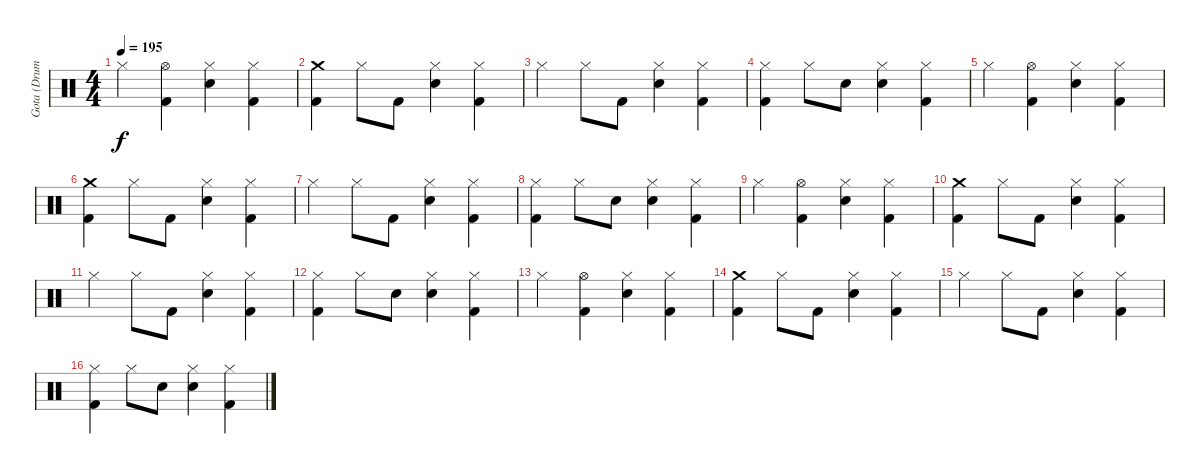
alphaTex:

\track ("Gota (Drums)" "Gota (Drum") {instrument percussion}
\staff {score}
\articulation defaults
\ts (4 4)
\tempo 195
\clef neutral
\ks c "Hi-Hat (closed)".4{dy f}
("Hi-Hat (open)" "Kick (hit) 2").4 ("Hi-Hat (closed)" "Electric Snare (hit)").4 ("Hi-Hat (closed)" "Kick (hit) 2").4 |
("Crash medium (hit)" "Kick (hit) 2").4 "Hi-Hat (closed)".8 "Kick (hit) 2".8 ("Hi-Hat (closed)" "Electric Snare (hit)").4 ("Hi-Hat (closed)" "Kick (hit) 2").4 |
"Hi-Hat (closed)".4 "Hi-Hat (closed)".8 "Kick (hit) 2".8 ("Hi-Hat (closed)" "Electric Snare (hit)").4 ("Hi-Hat (closed)" "Kick (hit) 2").4 |
("Hi-Hat (closed)" "Kick (hit) 2").4 "Hi-Hat (closed)".8 "Electric Snare (hit)".8 ("Hi-Hat (closed)" "Electric Snare (hit)").4 ("Hi-Hat (closed)" "Kick (hit) 2").4 |
"Hi-Hat (closed)".4 ("Hi-Hat (open)" "Kick (hit) 2").4 ("Hi-Hat (closed)" "Electric Snare (hit)").4 ("Hi-Hat (closed)" "Kick (hit) 2").4 |
("Crash medium (hit)" "Kick (hit) 2").4 "Hi-Hat (closed)".8 "Kick (hit) 2".8 ("Hi-Hat (closed)" "Electric Snare (hit)").4 ("Hi-Hat (closed)" "Kick (hit) 2").4 |
"Hi-Hat (closed)".4 "Hi-Hat (closed)".8 "Kick (hit) 2".8 ("Hi-Hat (closed)" "Electric Snare (hit)").4 ("Hi-Hat (closed)" "Kick (hit) 2").4 |
("Hi-Hat (closed)" "Kick (hit) 2").4 "Hi-Hat (closed)".8 "Electric Snare (hit)".8 ("Hi-Hat (closed)" "Electric Snare (hit)").4 ("Hi-Hat (closed)" "Kick (hit) 2").4 |
"Hi-Hat (closed)".4 ("Hi-Hat (open)" "Kick (hit) 2").4 ("Hi-Hat (closed)" "Electric Snare (hit)").4 ("Hi-Hat (closed)" "Kick (hit) 2").4 |
("Crash medium (hit)" "Kick (hit) 2").4 "Hi-Hat (closed)".8 "Kick (hit) 2".8 ("Hi-Hat (closed)" "Electric Snare (hit)").4 ("Hi-Hat (closed)" "Kick (hit) 2").4 |
"Hi-Hat (closed)".4 "Hi-Hat (closed)".8 "Kick (hit) 2".8 ("Hi-Hat (closed)" "Electric Snare (hit)").4 ("Hi-Hat (closed)" "Kick (hit) 2").4 |
("Hi-Hat (closed)" "Kick (hit) 2").4 "Hi-Hat (closed)".8 "Electric Snare (hit)".8 ("Hi-Hat (closed)" "Electric Snare (hit)").4 ("Hi-Hat (closed)" "Kick (hit) 2").4 |
"Hi-Hat (closed)".4 ("Hi-Hat (open)" "Kick (hit) 2").4 ("Hi-Hat (closed)" "Electric Snare (hit)").4 ("Hi-Hat (closed)" "Kick (hit) 2").4 |
("Crash medium (hit)" "Kick (hit) 2").4 "Hi-Hat (closed)".8 "Kick (hit) 2".8 ("Hi-Hat (closed)" "Electric Snare (hit)").4 ("Hi-Hat (closed)" "Kick (hit) 2").4 |
"Hi-Hat (closed)".4 "Hi-Hat (closed)".8 "Kick (hit) 2".8 ("Hi-Hat (closed)" "Electric Snare (hit)").4 ("Hi-Hat (closed)" "Kick (hit) 2").4 |
("Hi-Hat (closed)" "Kick (hit) 2").4 "Hi-Hat (closed)".8 "Electric Snare (hit)".8 ("Hi-Hat (closed)" "Electric Snare (hit)").4 ("Hi-Hat (closed)" "Kick (hit) 2").4
